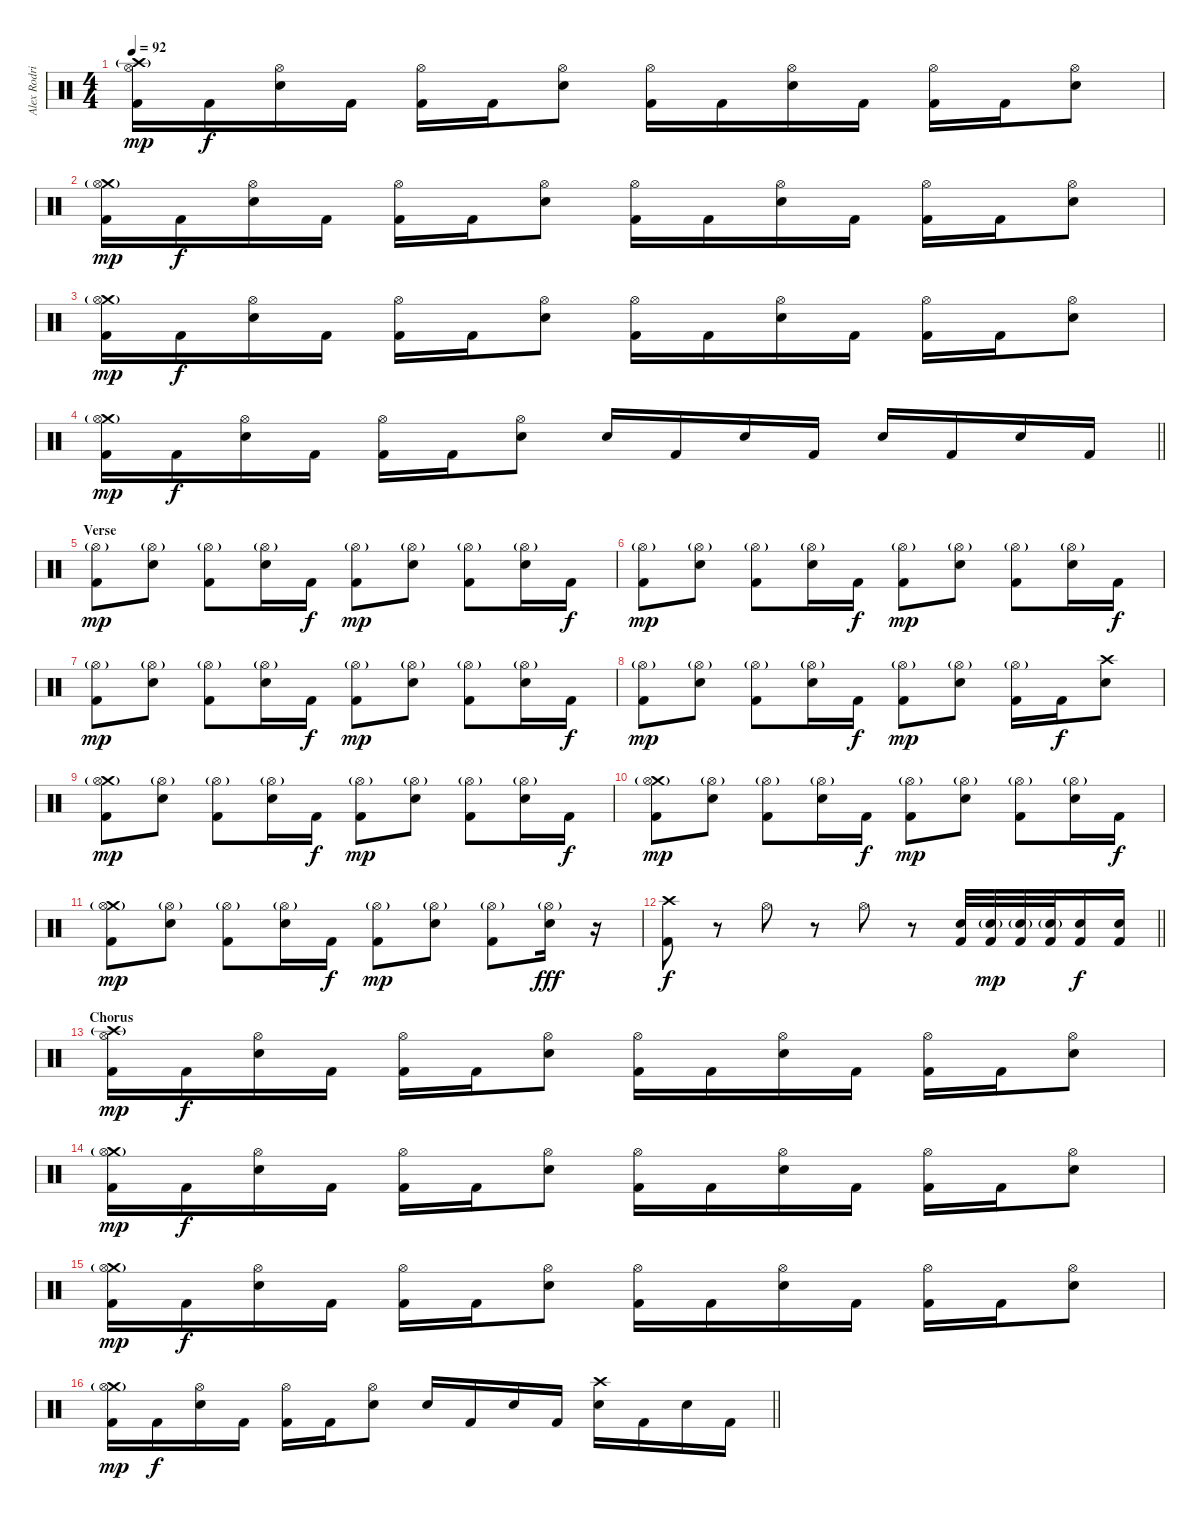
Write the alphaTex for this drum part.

\track ("Alex Rodriguez" "Alex Rodri") {instrument percussion}
\staff {score}
\articulation defaults
\ts (4 4)
\tempo 92
\clef neutral
\ks c
("Crash high (hit)"{g} "Hi-Hat (open)" "Kick (hit) 2").16{dy mp} "Kick (hit) 2".16{dy f} ("Hi-Hat (open)" "Electric Snare (hit)").16 "Kick (hit) 2".16 ("Hi-Hat (open)" "Kick (hit) 2").16 "Kick (hit) 2".16 ("Hi-Hat (open)" "Electric Snare (hit)").8 ("Hi-Hat (open)" "Kick (hit) 2").16 "Kick (hit) 2".16 ("Hi-Hat (open)" "Electric Snare (hit)").16 "Kick (hit) 2".16 ("Hi-Hat (open)" "Kick (hit) 2").16 "Kick (hit) 2".16 ("Hi-Hat (open)" "Electric Snare (hit)").8 |
("Crash medium (hit)"{g} "Hi-Hat (open)" "Kick (hit) 2").16{dy mp} "Kick (hit) 2".16{dy f} ("Hi-Hat (open)" "Electric Snare (hit)").16 "Kick (hit) 2".16 ("Hi-Hat (open)" "Kick (hit) 2").16 "Kick (hit) 2".16 ("Hi-Hat (open)" "Electric Snare (hit)").8 ("Hi-Hat (open)" "Kick (hit) 2").16 "Kick (hit) 2".16 ("Hi-Hat (open)" "Electric Snare (hit)").16 "Kick (hit) 2".16 ("Hi-Hat (open)" "Kick (hit) 2").16 "Kick (hit) 2".16 ("Hi-Hat (open)" "Electric Snare (hit)").8 |
("Crash medium (hit)"{g} "Hi-Hat (open)" "Kick (hit) 2").16{dy mp} "Kick (hit) 2".16{dy f} ("Hi-Hat (open)" "Electric Snare (hit)").16 "Kick (hit) 2".16 ("Hi-Hat (open)" "Kick (hit) 2").16 "Kick (hit) 2".16 ("Hi-Hat (open)" "Electric Snare (hit)").8 ("Hi-Hat (open)" "Kick (hit) 2").16 "Kick (hit) 2".16 ("Hi-Hat (open)" "Electric Snare (hit)").16 "Kick (hit) 2".16 ("Hi-Hat (open)" "Kick (hit) 2").16 "Kick (hit) 2".16 ("Hi-Hat (open)" "Electric Snare (hit)").8 |
\barLineRight lightlight
("Crash medium (hit)"{g} "Hi-Hat (open)" "Kick (hit) 2").16{dy mp} "Kick (hit) 2".16{dy f} ("Hi-Hat (open)" "Electric Snare (hit)").16 "Kick (hit) 2".16 ("Hi-Hat (open)" "Kick (hit) 2").16 "Kick (hit) 2".16 ("Hi-Hat (open)" "Electric Snare (hit)").8 "Electric Snare (hit)".16 "Kick (hit) 2".16 "Electric Snare (hit)".16 "Kick (hit) 2".16 "Electric Snare (hit)".16 "Kick (hit) 2".16 "Electric Snare (hit)".16 "Kick (hit) 2".16 |
\section ("" "Verse")
("Hi-Hat (open)"{g} "Kick (hit) 2").8{dy mp} ("Hi-Hat (open)"{g} "Electric Snare (hit)").8 ("Hi-Hat (open)"{g} "Kick (hit) 2").8 ("Hi-Hat (open)"{g} "Electric Snare (hit)").16 "Kick (hit) 2".16{dy f} ("Hi-Hat (open)"{g} "Kick (hit) 2").8{dy mp} ("Hi-Hat (open)"{g} "Electric Snare (hit)").8 ("Hi-Hat (open)"{g} "Kick (hit) 2").8 ("Hi-Hat (open)"{g} "Electric Snare (hit)").16 "Kick (hit) 2".16{dy f} |
("Hi-Hat (open)"{g} "Kick (hit) 2").8{dy mp} ("Hi-Hat (open)"{g} "Electric Snare (hit)").8 ("Hi-Hat (open)"{g} "Kick (hit) 2").8 ("Hi-Hat (open)"{g} "Electric Snare (hit)").16 "Kick (hit) 2".16{dy f} ("Hi-Hat (open)"{g} "Kick (hit) 2").8{dy mp} ("Hi-Hat (open)"{g} "Electric Snare (hit)").8 ("Hi-Hat (open)"{g} "Kick (hit) 2").8 ("Hi-Hat (open)"{g} "Electric Snare (hit)").16 "Kick (hit) 2".16{dy f} |
("Hi-Hat (open)"{g} "Kick (hit) 2").8{dy mp} ("Hi-Hat (open)"{g} "Electric Snare (hit)").8 ("Hi-Hat (open)"{g} "Kick (hit) 2").8 ("Hi-Hat (open)"{g} "Electric Snare (hit)").16 "Kick (hit) 2".16{dy f} ("Hi-Hat (open)"{g} "Kick (hit) 2").8{dy mp} ("Hi-Hat (open)"{g} "Electric Snare (hit)").8 ("Hi-Hat (open)"{g} "Kick (hit) 2").8 ("Hi-Hat (open)"{g} "Electric Snare (hit)").16 "Kick (hit) 2".16{dy f} |
("Hi-Hat (open)"{g} "Kick (hit) 2").8{dy mp} ("Hi-Hat (open)"{g} "Electric Snare (hit)").8 ("Hi-Hat (open)"{g} "Kick (hit) 2").8 ("Hi-Hat (open)"{g} "Electric Snare (hit)").16 "Kick (hit) 2".16{dy f} ("Hi-Hat (open)"{g} "Kick (hit) 2").8{dy mp} ("Hi-Hat (open)"{g} "Electric Snare (hit)").8 ("Hi-Hat (open)"{g} "Kick (hit) 2").16 "Kick (hit) 2".16{dy f} ("Crash high (hit)" "Electric Snare (hit)").8 |
("Crash medium (hit)" "Hi-Hat (open)"{g} "Kick (hit) 2").8{dy mp} ("Hi-Hat (open)"{g} "Electric Snare (hit)").8 ("Hi-Hat (open)"{g} "Kick (hit) 2").8 ("Hi-Hat (open)"{g} "Electric Snare (hit)").16 "Kick (hit) 2".16{dy f} ("Hi-Hat (open)"{g} "Kick (hit) 2").8{dy mp} ("Hi-Hat (open)"{g} "Electric Snare (hit)").8 ("Hi-Hat (open)"{g} "Kick (hit) 2").8 ("Hi-Hat (open)"{g} "Electric Snare (hit)").16 "Kick (hit) 2".16{dy f} |
("Crash medium (hit)" "Hi-Hat (open)"{g} "Kick (hit) 2").8{dy mp} ("Hi-Hat (open)"{g} "Electric Snare (hit)").8 ("Hi-Hat (open)"{g} "Kick (hit) 2").8 ("Hi-Hat (open)"{g} "Electric Snare (hit)").16 "Kick (hit) 2".16{dy f} ("Hi-Hat (open)"{g} "Kick (hit) 2").8{dy mp} ("Hi-Hat (open)"{g} "Electric Snare (hit)").8 ("Hi-Hat (open)"{g} "Kick (hit) 2").8 ("Hi-Hat (open)"{g} "Electric Snare (hit)").16 "Kick (hit) 2".16{dy f} |
("Crash medium (hit)" "Hi-Hat (open)"{g} "Kick (hit) 2").8{dy mp} ("Hi-Hat (open)"{g} "Electric Snare (hit)").8 ("Hi-Hat (open)"{g} "Kick (hit) 2").8 ("Hi-Hat (open)"{g} "Electric Snare (hit)").16 "Kick (hit) 2".16{dy f} ("Hi-Hat (open)"{g} "Kick (hit) 2").8{dy mp} ("Hi-Hat (open)"{g} "Electric Snare (hit)").8 ("Hi-Hat (open)"{g} "Kick (hit) 2").8 ("Hi-Hat (open)"{g} "Electric Snare (hit)").16{dy fff} r.16 |
\barLineRight lightlight
("Crash high (hit)" "Kick (hit) 2").8{dy f} r.8 "Hi-Hat (open)".8 r.8 "Hi-Hat (open)".8 r.8 ("Electric Snare (hit)" "Kick (hit) 2").32 ("Electric Snare (hit)"{g} "Kick (hit) 2").32{dy mp} ("Electric Snare (hit)"{g} "Kick (hit) 2").32 ("Electric Snare (hit)"{g} "Kick (hit) 2").32 ("Electric Snare (hit)" "Kick (hit) 2").16{dy f} ("Electric Snare (hit)" "Kick (hit) 2").16 |
\section ("" "Chorus")
("Crash high (hit)"{g} "Hi-Hat (open)" "Kick (hit) 2").16{dy mp} "Kick (hit) 2".16{dy f} ("Hi-Hat (open)" "Electric Snare (hit)").16 "Kick (hit) 2".16 ("Hi-Hat (open)" "Kick (hit) 2").16 "Kick (hit) 2".16 ("Hi-Hat (open)" "Electric Snare (hit)").8 ("Hi-Hat (open)" "Kick (hit) 2").16 "Kick (hit) 2".16 ("Hi-Hat (open)" "Electric Snare (hit)").16 "Kick (hit) 2".16 ("Hi-Hat (open)" "Kick (hit) 2").16 "Kick (hit) 2".16 ("Hi-Hat (open)" "Electric Snare (hit)").8 |
("Crash medium (hit)"{g} "Hi-Hat (open)" "Kick (hit) 2").16{dy mp} "Kick (hit) 2".16{dy f} ("Hi-Hat (open)" "Electric Snare (hit)").16 "Kick (hit) 2".16 ("Hi-Hat (open)" "Kick (hit) 2").16 "Kick (hit) 2".16 ("Hi-Hat (open)" "Electric Snare (hit)").8 ("Hi-Hat (open)" "Kick (hit) 2").16 "Kick (hit) 2".16 ("Hi-Hat (open)" "Electric Snare (hit)").16 "Kick (hit) 2".16 ("Hi-Hat (open)" "Kick (hit) 2").16 "Kick (hit) 2".16 ("Hi-Hat (open)" "Electric Snare (hit)").8 |
("Crash medium (hit)"{g} "Hi-Hat (open)" "Kick (hit) 2").16{dy mp} "Kick (hit) 2".16{dy f} ("Hi-Hat (open)" "Electric Snare (hit)").16 "Kick (hit) 2".16 ("Hi-Hat (open)" "Kick (hit) 2").16 "Kick (hit) 2".16 ("Hi-Hat (open)" "Electric Snare (hit)").8 ("Hi-Hat (open)" "Kick (hit) 2").16 "Kick (hit) 2".16 ("Hi-Hat (open)" "Electric Snare (hit)").16 "Kick (hit) 2".16 ("Hi-Hat (open)" "Kick (hit) 2").16 "Kick (hit) 2".16 ("Hi-Hat (open)" "Electric Snare (hit)").8 |
\barLineRight lightlight
("Crash medium (hit)"{g} "Hi-Hat (open)" "Kick (hit) 2").16{dy mp} "Kick (hit) 2".16{dy f} ("Hi-Hat (open)" "Electric Snare (hit)").16 "Kick (hit) 2".16 ("Hi-Hat (open)" "Kick (hit) 2").16 "Kick (hit) 2".16 ("Hi-Hat (open)" "Electric Snare (hit)").8 "Electric Snare (hit)".16 "Kick (hit) 2".16 "Electric Snare (hit)".16 "Kick (hit) 2".16 ("Crash high (hit)" "Electric Snare (hit)").16 "Kick (hit) 2".16 "Electric Snare (hit)".16 "Kick (hit) 2".16
